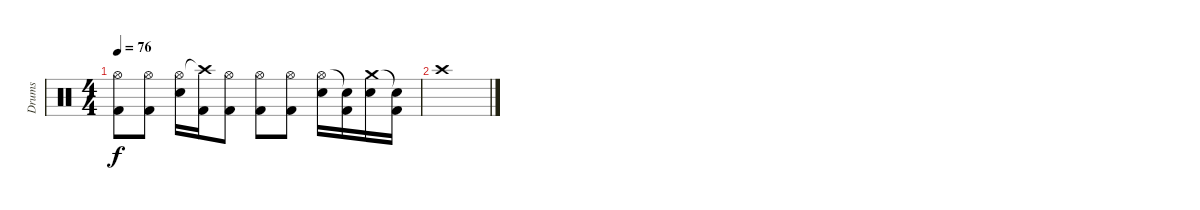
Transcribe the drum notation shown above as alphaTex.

\track ("Drums" "Drums") {instrument percussion}
\staff {score}
\articulation defaults
\ts (4 4)
\tempo 76
\clef neutral
\ks c
("Hi-Hat (open)" "Kick (hit) 2").8{dy f} ("Hi-Hat (open)" "Kick (hit) 2").8 ("Hi-Hat (open)" "Electric Snare (hit)").16 ("Crash high (hit)"{t} "Kick (hit) 2").16 ("Hi-Hat (open)" "Kick (hit) 2").8 ("Hi-Hat (open)" "Kick (hit) 2").8 ("Hi-Hat (open)" "Kick (hit) 2").8 ("Hi-Hat (open)" "Electric Snare (hit)").16 ("Snare (hit)"{t} "Kick (hit) 2").16 ("Crash medium (hit)" "Electric Snare (hit)").16 ("Snare (hit)"{t} "Kick (hit) 2").16 |
"Crash high (hit)".1
